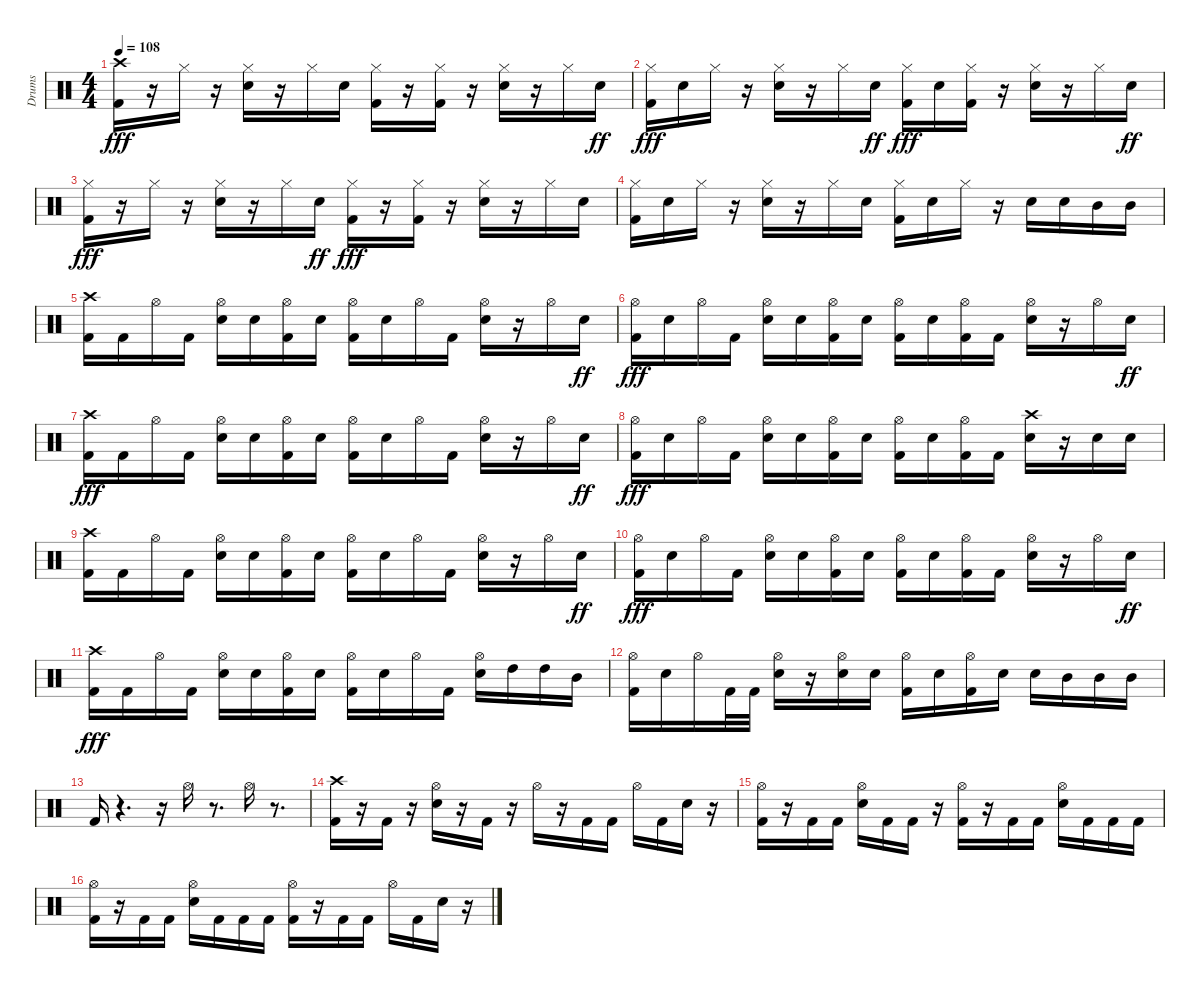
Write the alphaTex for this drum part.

\track ("Drums " "Drums ") {instrument percussion}
\staff {score}
\articulation defaults
\ts (4 4)
\tempo 108
\clef neutral
\ks c
("Kick (hit) 2" "Crash high (hit)").16{dy fff} r.16 "Hi-Hat (closed)".16 r.16 ("Snare (hit) 2" "Hi-Hat (closed)").16 r.16 "Hi-Hat (closed)".16 "Snare (hit) 2".16 ("Kick (hit) 2" "Hi-Hat (closed)").16 r.16 ("Kick (hit) 2" "Hi-Hat (closed)").16 r.16 ("Snare (hit) 2" "Hi-Hat (closed)").16 r.16 "Hi-Hat (closed)".16 "Snare (hit) 2".16{dy ff} |
("Kick (hit) 2" "Hi-Hat (closed)").16{dy fff} "Snare (hit) 2".16 "Hi-Hat (closed)".16 r.16 ("Snare (hit) 2" "Hi-Hat (closed)").16 r.16 "Hi-Hat (closed)".16 "Snare (hit) 2".16{dy ff} ("Kick (hit) 2" "Hi-Hat (closed)").16{dy fff} "Snare (hit) 2".16 ("Kick (hit) 2" "Hi-Hat (closed)").16 r.16 ("Snare (hit) 2" "Hi-Hat (closed)").16 r.16 "Hi-Hat (closed)".16 "Snare (hit) 2".16{dy ff} |
("Kick (hit) 2" "Hi-Hat (closed)").16{dy fff} r.16 "Hi-Hat (closed)".16 r.16 ("Snare (hit) 2" "Hi-Hat (closed)").16 r.16 "Hi-Hat (closed)".16 "Snare (hit) 2".16{dy ff} ("Kick (hit) 2" "Hi-Hat (closed)").16{dy fff} r.16 ("Kick (hit) 2" "Hi-Hat (closed)").16 r.16 ("Snare (hit) 2" "Hi-Hat (closed)").16 r.16 "Hi-Hat (closed)".16 "Snare (hit) 2".16 |
("Kick (hit) 2" "Hi-Hat (closed)").16 "Snare (hit) 2".16 "Hi-Hat (closed)".16 r.16 ("Snare (hit) 2" "Hi-Hat (closed)").16 r.16 "Hi-Hat (closed)".16 "Snare (hit) 2".16 ("Kick (hit) 2" "Hi-Hat (closed)").16 "Snare (hit) 2".16 "Hi-Hat (closed)".16 r.16 "Snare (hit) 2".16 "Snare (hit) 2".16 "Mid Tom (hit)".16 "Mid Tom (hit)".16 |
("Kick (hit) 2" "Crash high (hit)").16 "Kick (hit) 2".16 "Hi-Hat (open)".16 "Kick (hit) 2".16 ("Snare (hit) 2" "Hi-Hat (open)").16 "Snare (hit) 2".16 ("Kick (hit) 2" "Hi-Hat (open)").16 "Snare (hit) 2".16 ("Kick (hit) 2" "Hi-Hat (open)").16 "Snare (hit) 2".16 "Hi-Hat (open)".16 "Kick (hit) 2".16 ("Snare (hit) 2" "Hi-Hat (open)").16 r.16 "Hi-Hat (open)".16 "Snare (hit) 2".16{dy ff} |
("Kick (hit) 2" "Hi-Hat (open)").16{dy fff} "Snare (hit) 2".16 "Hi-Hat (open)".16 "Kick (hit) 2".16 ("Snare (hit) 2" "Hi-Hat (open)").16 "Snare (hit) 2".16 ("Kick (hit) 2" "Hi-Hat (open)").16 "Snare (hit) 2".16 ("Kick (hit) 2" "Hi-Hat (open)").16 "Snare (hit) 2".16 ("Kick (hit) 2" "Hi-Hat (open)").16 "Kick (hit) 2".16 ("Snare (hit) 2" "Hi-Hat (open)").16 r.16 "Hi-Hat (open)".16 "Snare (hit) 2".16{dy ff} |
("Kick (hit) 2" "Crash high (hit)").16{dy fff} "Kick (hit) 2".16 "Hi-Hat (open)".16 "Kick (hit) 2".16 ("Snare (hit) 2" "Hi-Hat (open)").16 "Snare (hit) 2".16 ("Kick (hit) 2" "Hi-Hat (open)").16 "Snare (hit) 2".16 ("Kick (hit) 2" "Hi-Hat (open)").16 "Snare (hit) 2".16 "Hi-Hat (open)".16 "Kick (hit) 2".16 ("Snare (hit) 2" "Hi-Hat (open)").16 r.16 "Hi-Hat (open)".16 "Snare (hit) 2".16{dy ff} |
("Kick (hit) 2" "Hi-Hat (open)").16{dy fff} "Snare (hit) 2".16 "Hi-Hat (open)".16 "Kick (hit) 2".16 ("Snare (hit) 2" "Hi-Hat (open)").16 "Snare (hit) 2".16 ("Kick (hit) 2" "Hi-Hat (open)").16 "Snare (hit) 2".16 ("Kick (hit) 2" "Hi-Hat (open)").16 "Snare (hit) 2".16 ("Kick (hit) 2" "Hi-Hat (open)").16 "Kick (hit) 2".16 ("Snare (hit) 2" "Crash high (hit)").16 r.16 "Snare (hit) 2".16 "Snare (hit) 2".16 |
("Kick (hit) 2" "Crash high (hit)").16 "Kick (hit) 2".16 "Hi-Hat (open)".16 "Kick (hit) 2".16 ("Snare (hit) 2" "Hi-Hat (open)").16 "Snare (hit) 2".16 ("Kick (hit) 2" "Hi-Hat (open)").16 "Snare (hit) 2".16 ("Kick (hit) 2" "Hi-Hat (open)").16 "Snare (hit) 2".16 "Hi-Hat (open)".16 "Kick (hit) 2".16 ("Snare (hit) 2" "Hi-Hat (open)").16 r.16 "Hi-Hat (open)".16 "Snare (hit) 2".16{dy ff} |
("Kick (hit) 2" "Hi-Hat (open)").16{dy fff} "Snare (hit) 2".16 "Hi-Hat (open)".16 "Kick (hit) 2".16 ("Snare (hit) 2" "Hi-Hat (open)").16 "Snare (hit) 2".16 ("Kick (hit) 2" "Hi-Hat (open)").16 "Snare (hit) 2".16 ("Kick (hit) 2" "Hi-Hat (open)").16 "Snare (hit) 2".16 ("Kick (hit) 2" "Hi-Hat (open)").16 "Kick (hit) 2".16 ("Snare (hit) 2" "Hi-Hat (open)").16 r.16 "Hi-Hat (open)".16 "Snare (hit) 2".16{dy ff} |
("Kick (hit) 2" "Crash high (hit)").16{dy fff} "Kick (hit) 2".16 "Hi-Hat (open)".16 "Kick (hit) 2".16 ("Snare (hit) 2" "Hi-Hat (open)").16 "Snare (hit) 2".16 ("Kick (hit) 2" "Hi-Hat (open)").16 "Snare (hit) 2".16 ("Kick (hit) 2" "Hi-Hat (open)").16 "Snare (hit) 2".16 "Hi-Hat (open)".16 "Kick (hit) 2".16 ("Snare (hit) 2" "Hi-Hat (open)").16 "High Tom (hit)".16 "High Tom (hit)".16 "Mid Tom (hit)".16 |
("Kick (hit) 2" "Hi-Hat (open)").16 "Snare (hit) 2".16 "Hi-Hat (open)".16 "Kick (hit) 2".32 "Kick (hit) 2".32 ("Snare (hit) 2" "Hi-Hat (open)").16 r.16 ("Snare (hit) 2" "Hi-Hat (open)").16 "Snare (hit) 2".16 ("Kick (hit) 2" "Hi-Hat (open)").16 "Snare (hit) 2".16 ("Kick (hit) 2" "Hi-Hat (open)").16 "Snare (hit) 2".16 "Snare (hit) 2".16 "Mid Tom (hit)".16 "Mid Tom (hit)".16 "Mid Tom (hit)".16 |
"Kick (hit) 2".16 r.4{d} r.16 "Hi-Hat (open)".16 r.8{d} "Hi-Hat (open)".16 r.8{d} |
("Kick (hit) 2" "Crash high (hit)").16 r.16 "Kick (hit) 2".16 r.16 ("Snare (hit) 2" "Hi-Hat (open)").16 r.16 "Kick (hit) 2".16 r.16 "Hi-Hat (open)".16 r.16 "Kick (hit) 2".16 "Kick (hit) 2".16 "Hi-Hat (open)".16 "Kick (hit) 2".16 "Snare (hit) 2".16 r.16 |
("Kick (hit) 2" "Hi-Hat (open)").16 r.16 "Kick (hit) 2".16 "Kick (hit) 2".16 ("Snare (hit) 2" "Hi-Hat (open)").16 "Kick (hit) 2".16 "Kick (hit) 2".16 r.16 ("Kick (hit) 2" "Hi-Hat (open)").16 r.16 "Kick (hit) 2".16 "Kick (hit) 2".16 ("Snare (hit) 2" "Hi-Hat (open)").16 "Kick (hit) 2".16 "Kick (hit) 2".16 "Kick (hit) 2".16 |
("Kick (hit) 2" "Hi-Hat (open)").16 r.16 "Kick (hit) 2".16 "Kick (hit) 2".16 ("Snare (hit) 2" "Hi-Hat (open)").16 "Kick (hit) 2".16 "Kick (hit) 2".16 "Kick (hit) 2".16 ("Kick (hit) 2" "Hi-Hat (open)").16 r.16 "Kick (hit) 2".16 "Kick (hit) 2".16 "Hi-Hat (open)".16 "Kick (hit) 2".16 "Snare (hit) 2".16 r.16
